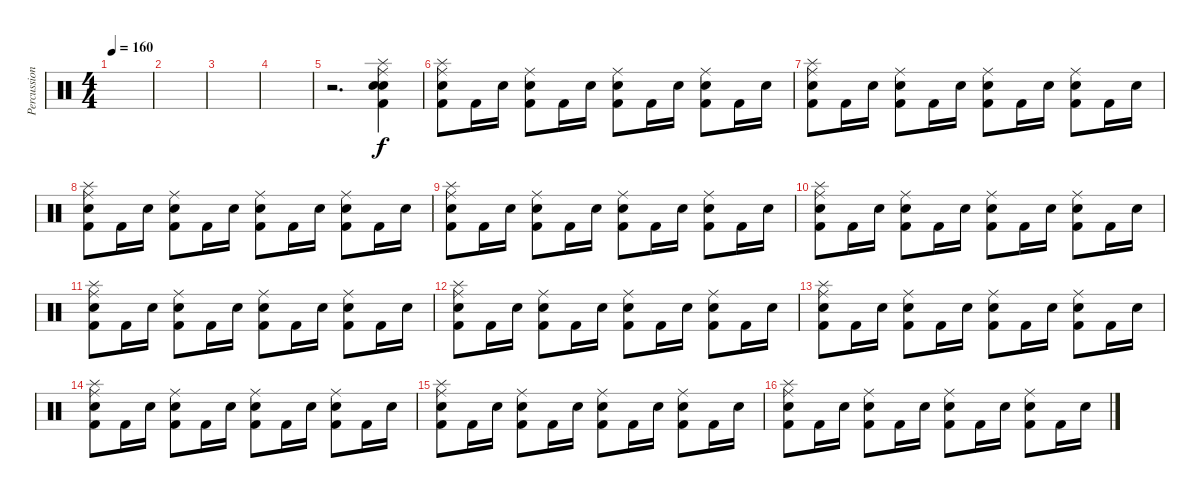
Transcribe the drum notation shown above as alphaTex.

\track ("Percussions" "Percussion") {instrument percussion}
\staff {score}
\articulation defaults
\ts (4 4)
\tempo 160
\clef neutral
\ks c
|
|
|
|
r.2{d} ("Splash (hit)" "Ride (middle)" "Kick (hit) 2" "Snare (hit) 2" "Electric Snare (hit)").4 |
("Ride (middle)" "Splash (hit)" "Electric Snare (hit)" "Kick (hit) 2").8 "Kick (hit) 2".16 "Electric Snare (hit)".16 ("Kick (hit) 2" "Ride (middle)" "Electric Snare (hit)").8 "Kick (hit) 2".16 "Electric Snare (hit)".16 ("Kick (hit) 2" "Ride (middle)" "Electric Snare (hit)").8 "Kick (hit) 2".16 "Electric Snare (hit)".16 ("Electric Snare (hit)" "Ride (middle)" "Kick (hit) 2").8 "Kick (hit) 2".16 "Electric Snare (hit)".16 |
("Ride (middle)" "Splash (hit)" "Electric Snare (hit)" "Kick (hit) 2").8 "Kick (hit) 2".16 "Electric Snare (hit)".16 ("Kick (hit) 2" "Ride (middle)" "Electric Snare (hit)").8 "Kick (hit) 2".16 "Electric Snare (hit)".16 ("Kick (hit) 2" "Ride (middle)" "Electric Snare (hit)").8 "Kick (hit) 2".16 "Electric Snare (hit)".16 ("Electric Snare (hit)" "Ride (middle)" "Kick (hit) 2").8 "Kick (hit) 2".16 "Electric Snare (hit)".16 |
("Ride (middle)" "Splash (hit)" "Electric Snare (hit)" "Kick (hit) 2").8 "Kick (hit) 2".16 "Electric Snare (hit)".16 ("Kick (hit) 2" "Ride (middle)" "Electric Snare (hit)").8 "Kick (hit) 2".16 "Electric Snare (hit)".16 ("Kick (hit) 2" "Ride (middle)" "Electric Snare (hit)").8 "Kick (hit) 2".16 "Electric Snare (hit)".16 ("Electric Snare (hit)" "Ride (middle)" "Kick (hit) 2").8 "Kick (hit) 2".16 "Electric Snare (hit)".16 |
("Ride (middle)" "Splash (hit)" "Electric Snare (hit)" "Kick (hit) 2").8 "Kick (hit) 2".16 "Electric Snare (hit)".16 ("Kick (hit) 2" "Ride (middle)" "Electric Snare (hit)").8 "Kick (hit) 2".16 "Electric Snare (hit)".16 ("Kick (hit) 2" "Ride (middle)" "Electric Snare (hit)").8 "Kick (hit) 2".16 "Electric Snare (hit)".16 ("Electric Snare (hit)" "Ride (middle)" "Kick (hit) 2").8 "Kick (hit) 2".16 "Electric Snare (hit)".16 |
("Ride (middle)" "Splash (hit)" "Electric Snare (hit)" "Kick (hit) 2").8 "Kick (hit) 2".16 "Electric Snare (hit)".16 ("Kick (hit) 2" "Ride (middle)" "Electric Snare (hit)").8 "Kick (hit) 2".16 "Electric Snare (hit)".16 ("Kick (hit) 2" "Ride (middle)" "Electric Snare (hit)").8 "Kick (hit) 2".16 "Electric Snare (hit)".16 ("Electric Snare (hit)" "Ride (middle)" "Kick (hit) 2").8 "Kick (hit) 2".16 "Electric Snare (hit)".16 |
("Ride (middle)" "Splash (hit)" "Electric Snare (hit)" "Kick (hit) 2").8 "Kick (hit) 2".16 "Electric Snare (hit)".16 ("Kick (hit) 2" "Ride (middle)" "Electric Snare (hit)").8 "Kick (hit) 2".16 "Electric Snare (hit)".16 ("Kick (hit) 2" "Ride (middle)" "Electric Snare (hit)").8 "Kick (hit) 2".16 "Electric Snare (hit)".16 ("Electric Snare (hit)" "Ride (middle)" "Kick (hit) 2").8 "Kick (hit) 2".16 "Electric Snare (hit)".16 |
("Ride (middle)" "Splash (hit)" "Electric Snare (hit)" "Kick (hit) 2").8 "Kick (hit) 2".16 "Electric Snare (hit)".16 ("Kick (hit) 2" "Ride (middle)" "Electric Snare (hit)").8 "Kick (hit) 2".16 "Electric Snare (hit)".16 ("Kick (hit) 2" "Ride (middle)" "Electric Snare (hit)").8 "Kick (hit) 2".16 "Electric Snare (hit)".16 ("Electric Snare (hit)" "Ride (middle)" "Kick (hit) 2").8 "Kick (hit) 2".16 "Electric Snare (hit)".16 |
("Ride (middle)" "Splash (hit)" "Electric Snare (hit)" "Kick (hit) 2").8 "Kick (hit) 2".16 "Electric Snare (hit)".16 ("Kick (hit) 2" "Ride (middle)" "Electric Snare (hit)").8 "Kick (hit) 2".16 "Electric Snare (hit)".16 ("Kick (hit) 2" "Ride (middle)" "Electric Snare (hit)").8 "Kick (hit) 2".16 "Electric Snare (hit)".16 ("Electric Snare (hit)" "Ride (middle)" "Kick (hit) 2").8 "Kick (hit) 2".16 "Electric Snare (hit)".16 |
("Ride (middle)" "Splash (hit)" "Electric Snare (hit)" "Kick (hit) 2").8 "Kick (hit) 2".16 "Electric Snare (hit)".16 ("Kick (hit) 2" "Ride (middle)" "Electric Snare (hit)").8 "Kick (hit) 2".16 "Electric Snare (hit)".16 ("Kick (hit) 2" "Ride (middle)" "Electric Snare (hit)").8 "Kick (hit) 2".16 "Electric Snare (hit)".16 ("Electric Snare (hit)" "Ride (middle)" "Kick (hit) 2").8 "Kick (hit) 2".16 "Electric Snare (hit)".16 |
("Ride (middle)" "Splash (hit)" "Electric Snare (hit)" "Kick (hit) 2").8 "Kick (hit) 2".16 "Electric Snare (hit)".16 ("Kick (hit) 2" "Ride (middle)" "Electric Snare (hit)").8 "Kick (hit) 2".16 "Electric Snare (hit)".16 ("Kick (hit) 2" "Ride (middle)" "Electric Snare (hit)").8 "Kick (hit) 2".16 "Electric Snare (hit)".16 ("Electric Snare (hit)" "Ride (middle)" "Kick (hit) 2").8 "Kick (hit) 2".16 "Electric Snare (hit)".16 |
("Ride (middle)" "Splash (hit)" "Electric Snare (hit)" "Kick (hit) 2").8 "Kick (hit) 2".16 "Electric Snare (hit)".16 ("Kick (hit) 2" "Ride (middle)" "Electric Snare (hit)").8 "Kick (hit) 2".16 "Electric Snare (hit)".16 ("Kick (hit) 2" "Ride (middle)" "Electric Snare (hit)").8 "Kick (hit) 2".16 "Electric Snare (hit)".16 ("Electric Snare (hit)" "Ride (middle)" "Kick (hit) 2").8 "Kick (hit) 2".16 "Electric Snare (hit)".16
